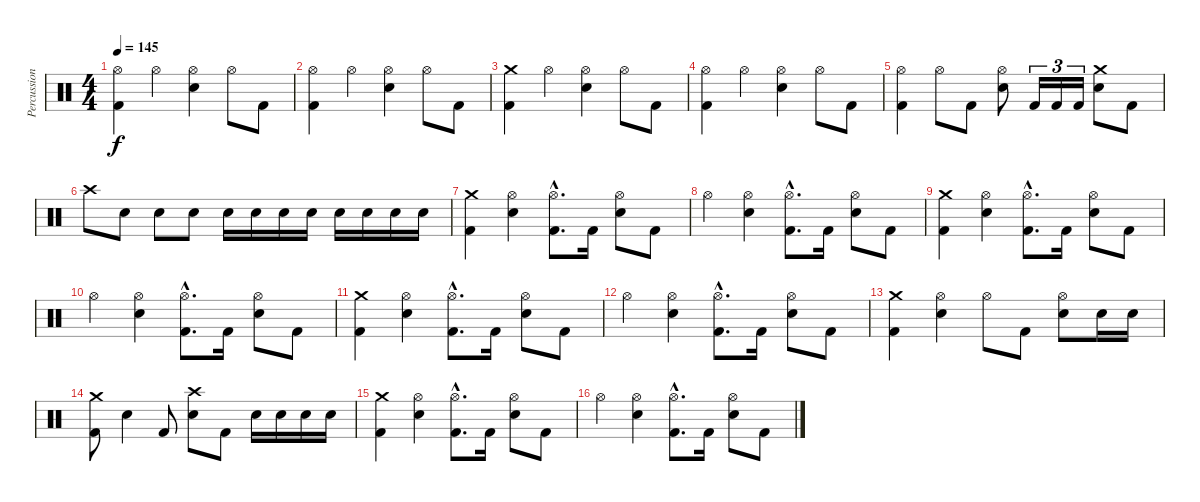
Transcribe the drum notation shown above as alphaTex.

\track ("Percussion" "Percussion") {instrument percussion}
\staff {score}
\articulation defaults
\ts (4 4)
\tempo 145
\clef neutral
\ks c
("Hi-Hat (open)" "Kick (hit) 2").4{dy f} "Hi-Hat (open)".4 ("Hi-Hat (open)" "Snare (hit) 2").4 "Hi-Hat (open)".8 "Kick (hit) 2".8 |
("Hi-Hat (open)" "Kick (hit) 2").4 "Hi-Hat (open)".4 ("Hi-Hat (open)" "Snare (hit) 2").4 "Hi-Hat (open)".8 "Kick (hit) 2".8 |
("Crash medium (hit)" "Kick (hit) 2").4 "Hi-Hat (open)".4 ("Hi-Hat (open)" "Snare (hit) 2").4 "Hi-Hat (open)".8 "Kick (hit) 2".8 |
("Hi-Hat (open)" "Kick (hit) 2").4 "Hi-Hat (open)".4 ("Hi-Hat (open)" "Snare (hit) 2").4 "Hi-Hat (open)".8 "Kick (hit) 2".8 |
("Hi-Hat (open)" "Kick (hit) 2").4 "Hi-Hat (open)".8 "Kick (hit) 2".8 ("Hi-Hat (open)" "Snare (hit) 2").8 "Kick (hit) 2".16{tu (3 2)} "Kick (hit) 2".16{tu (3 2)} "Kick (hit) 2".16{tu (3 2)} ("Crash medium (hit)" "Snare (hit) 2").8 "Kick (hit) 2".8 |
"Crash high (hit)".8 "Snare (hit) 2".8 "Snare (hit) 2".8 "Snare (hit) 2".8 "Snare (hit) 2".16 "Snare (hit) 2".16 "Snare (hit) 2".16 "Snare (hit) 2".16 "Snare (hit) 2".16 "Snare (hit) 2".16 "Snare (hit) 2".16 "Snare (hit) 2".16 |
("Crash medium (hit)" "Kick (hit) 2").4 ("Hi-Hat (open)" "Snare (hit) 2").4 ("Hi-Hat (open)"{hac} "Kick (hit) 2"{hac}).8{d} "Kick (hit) 2".16 ("Hi-Hat (open)" "Snare (hit) 2").8 "Kick (hit) 2".8 |
"Hi-Hat (open)".4 ("Hi-Hat (open)" "Snare (hit) 2").4 ("Hi-Hat (open)"{hac} "Kick (hit) 2"{hac}).8{d} "Kick (hit) 2".16 ("Hi-Hat (open)" "Snare (hit) 2").8 "Kick (hit) 2".8 |
("Crash medium (hit)" "Kick (hit) 2").4 ("Hi-Hat (open)" "Snare (hit) 2").4 ("Hi-Hat (open)"{hac} "Kick (hit) 2"{hac}).8{d} "Kick (hit) 2".16 ("Hi-Hat (open)" "Snare (hit) 2").8 "Kick (hit) 2".8 |
"Hi-Hat (open)".4 ("Hi-Hat (open)" "Snare (hit) 2").4 ("Hi-Hat (open)"{hac} "Kick (hit) 2"{hac}).8{d} "Kick (hit) 2".16 ("Hi-Hat (open)" "Snare (hit) 2").8 "Kick (hit) 2".8 |
("Crash medium (hit)" "Kick (hit) 2").4 ("Hi-Hat (open)" "Snare (hit) 2").4 ("Hi-Hat (open)"{hac} "Kick (hit) 2"{hac}).8{d} "Kick (hit) 2".16 ("Hi-Hat (open)" "Snare (hit) 2").8 "Kick (hit) 2".8 |
"Hi-Hat (open)".4 ("Hi-Hat (open)" "Snare (hit) 2").4 ("Hi-Hat (open)"{hac} "Kick (hit) 2"{hac}).8{d} "Kick (hit) 2".16 ("Hi-Hat (open)" "Snare (hit) 2").8 "Kick (hit) 2".8 |
("Crash medium (hit)" "Kick (hit) 2").4 ("Hi-Hat (open)" "Snare (hit) 2").4 "Hi-Hat (open)".8 "Kick (hit) 2".8 ("Hi-Hat (open)" "Snare (hit) 2").8 "Snare (hit) 2".16 "Snare (hit) 2".16 |
("Crash medium (hit)" "Kick (hit) 2").8 "Snare (hit) 2".4 "Kick (hit) 2".8 ("Crash high (hit)" "Snare (hit) 2").8 "Kick (hit) 2".8 "Snare (hit) 2".16 "Snare (hit) 2".16 "Snare (hit) 2".16 "Snare (hit) 2".16 |
("Crash medium (hit)" "Kick (hit) 2").4 ("Hi-Hat (open)" "Snare (hit) 2").4 ("Hi-Hat (open)"{hac} "Kick (hit) 2"{hac}).8{d} "Kick (hit) 2".16 ("Hi-Hat (open)" "Snare (hit) 2").8 "Kick (hit) 2".8 |
"Hi-Hat (open)".4 ("Hi-Hat (open)" "Snare (hit) 2").4 ("Hi-Hat (open)"{hac} "Kick (hit) 2"{hac}).8{d} "Kick (hit) 2".16 ("Hi-Hat (open)" "Snare (hit) 2").8 "Kick (hit) 2".8
